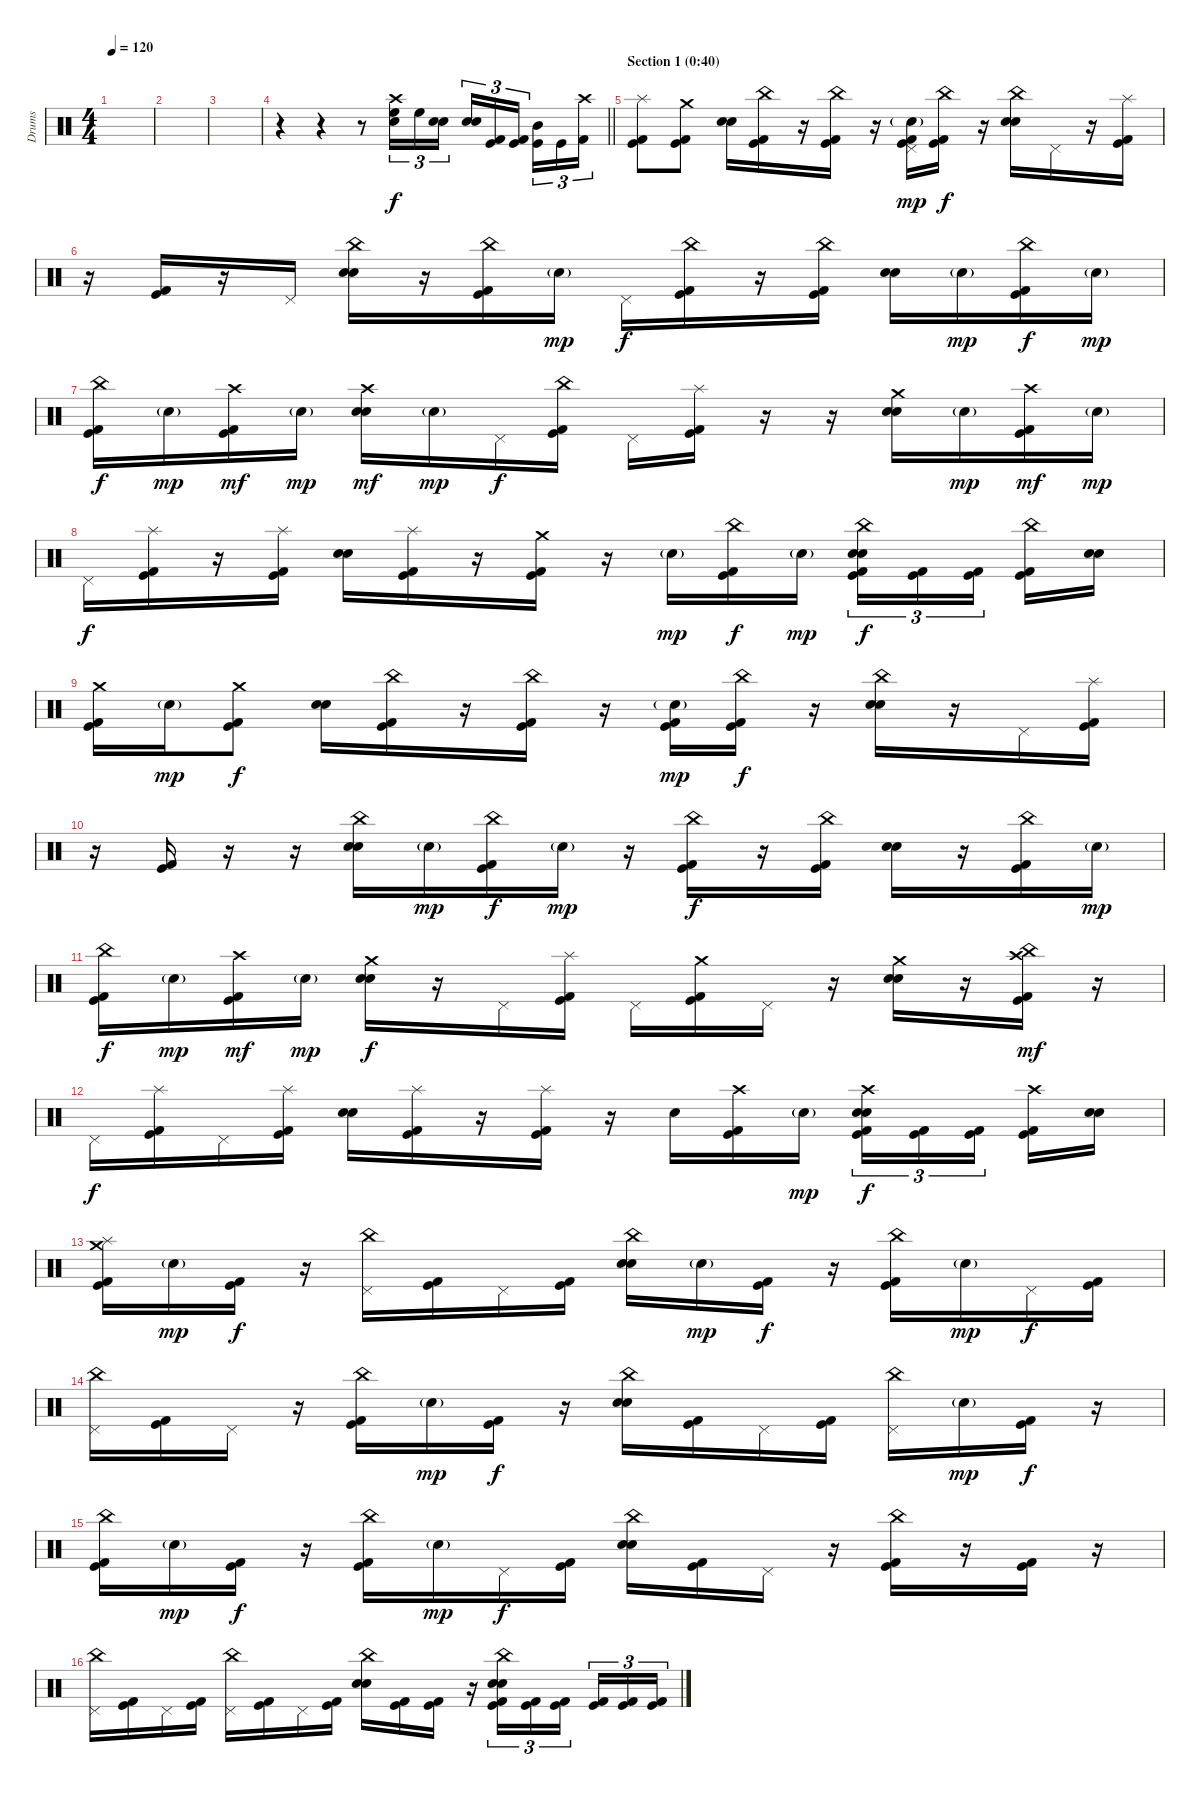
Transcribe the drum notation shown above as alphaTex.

\track ("Drums" "Drums") {instrument percussion}
\staff {score}
\articulation defaults
\ts (4 4)
\tempo 120
\clef neutral
\ks c
|
|
|
\barLineRight lightlight
r.4 r.4 r.8 ("Crash high (hit)" "High Floor Tom (hit)" "Electric Snare (hit)").16{tu (3 2)} "High Floor Tom (hit)".16{tu (3 2)} ("Electric Snare (hit)" "Electric Snare (hit)").16{tu (3 2)} ("Electric Snare (hit)" "Electric Snare (hit)").16{tu (3 2)} ("Kick (hit) 2" "Kick (hit)").16{tu (3 2)} ("Kick (hit) 2" "Kick (hit)").16{tu (3 2) beam splitsecondary} ("Mid Tom (hit)" "Kick (hit)").16{tu (3 2)} "Kick (hit)".16{tu (3 2)} ("Crash high (hit)" "Kick (hit) 2").16{tu (3 2)} |
\section ("" "Section 1 (0:40)")
("Splash (hit)" "Kick (hit) 2" "Kick (hit)").8 ("Crash medium (hit)" "Kick (hit) 2" "Kick (hit)").8 ("Electric Snare (hit)" "Electric Snare (hit)").16 ("China (hit)" "Kick (hit) 2" "Kick (hit)").16 r.16 ("China (hit)" "Kick (hit) 2" "Kick (hit)").16 r.16 ("Pedal Hi-Hat (hit)" "Snare (hit) 2"{g} "Kick (hit) 2" "Kick (hit)").16{dy mp} ("China (hit)" "Kick (hit) 2" "Kick (hit)").16{dy f} r.16 ("China (hit)" "Electric Snare (hit)" "Electric Snare (hit)").16 "Pedal Hi-Hat (hit)".16 r.16 ("Splash (hit)" "Kick (hit) 2" "Kick (hit)").16 |
r.16 ("Kick (hit) 2" "Kick (hit)").16 r.16 "Pedal Hi-Hat (hit)".16 ("China (hit)" "Electric Snare (hit)" "Electric Snare (hit)").16 r.16 ("China (hit)" "Kick (hit) 2" "Kick (hit)").16 "Snare (hit) 2"{g}.16{dy mp} "Pedal Hi-Hat (hit)".16{dy f} ("China (hit)" "Kick (hit) 2" "Kick (hit)").16 r.16 ("China (hit)" "Kick (hit) 2" "Kick (hit)").16 ("Electric Snare (hit)" "Electric Snare (hit)").16 "Snare (hit) 2"{g}.16{dy mp} ("China (hit)" "Kick (hit) 2" "Kick (hit)").16{dy f} "Snare (hit) 2"{g}.16{dy mp} |
("China (hit)" "Kick (hit) 2" "Kick (hit)").16{dy f} "Snare (hit) 2"{g}.16{dy mp} ("Crash high (hit)" "Kick (hit) 2" "Kick (hit)").16{dy mf} "Snare (hit) 2"{g}.16{dy mp} ("Crash high (hit)" "Electric Snare (hit)" "Electric Snare (hit)").16{dy mf} "Snare (hit) 2"{g}.16{dy mp} "Pedal Hi-Hat (hit)".16{dy f} ("China (hit)" "Kick (hit) 2" "Kick (hit)").16 "Pedal Hi-Hat (hit)".16 ("Splash (hit)" "Kick (hit) 2" "Kick (hit)").16 r.16 r.16 ("Crash medium (hit)" "Electric Snare (hit)" "Electric Snare (hit)").16 "Snare (hit) 2"{g}.16{dy mp} ("Crash high (hit)" "Kick (hit) 2" "Kick (hit)").16{dy mf} "Snare (hit) 2"{g}.16{dy mp} |
"Pedal Hi-Hat (hit)".16{dy f} ("Splash (hit)" "Kick (hit) 2" "Kick (hit)").16 r.16 ("Splash (hit)" "Kick (hit) 2" "Kick (hit)").16 ("Electric Snare (hit)" "Electric Snare (hit)").16 ("Splash (hit)" "Kick (hit) 2" "Kick (hit)").16 r.16 ("Crash medium (hit)" "Kick (hit) 2" "Kick (hit)").16 r.16 "Snare (hit) 2"{g}.16{dy mp} ("China (hit)" "Kick (hit) 2" "Kick (hit)").16{dy f} "Snare (hit) 2"{g}.16{dy mp} ("China (hit)" "Electric Snare (hit)" "Electric Snare (hit)" "Kick (hit) 2" "Kick (hit)").16{tu (3 2) dy f} ("Kick (hit) 2" "Kick (hit)").16{tu (3 2)} ("Kick (hit) 2" "Kick (hit)").16{tu (3 2) beam splitsecondary} ("China (hit)" "Kick (hit) 2" "Kick (hit)").16 ("Electric Snare (hit)" "Electric Snare (hit)").16 |
("Crash medium (hit)" "Kick (hit) 2" "Kick (hit)").16 "Snare (hit) 2"{g}.16{dy mp} ("Crash medium (hit)" "Kick (hit) 2" "Kick (hit)").8{dy f} ("Electric Snare (hit)" "Electric Snare (hit)").16 ("China (hit)" "Kick (hit) 2" "Kick (hit)").16 r.16 ("China (hit)" "Kick (hit) 2" "Kick (hit)").16 r.16 ("Snare (hit) 2"{g} "Kick (hit) 2" "Kick (hit)").16{dy mp} ("China (hit)" "Kick (hit) 2" "Kick (hit)").16{dy f} r.16 ("China (hit)" "Electric Snare (hit)" "Electric Snare (hit)").16 r.16 "Pedal Hi-Hat (hit)".16 ("Splash (hit)" "Kick (hit) 2" "Kick (hit)").16 |
r.16 ("Kick (hit) 2" "Kick (hit)").16 r.16 r.16 ("China (hit)" "Electric Snare (hit)" "Electric Snare (hit)").16 "Snare (hit) 2"{g}.16{dy mp} ("China (hit)" "Kick (hit) 2" "Kick (hit)").16{dy f} "Snare (hit) 2"{g}.16{dy mp} r.16 ("China (hit)" "Kick (hit) 2" "Kick (hit)").16{dy f} r.16 ("China (hit)" "Kick (hit) 2" "Kick (hit)").16 ("Electric Snare (hit)" "Electric Snare (hit)").16 r.16 ("China (hit)" "Kick (hit) 2" "Kick (hit)").16 "Snare (hit) 2"{g}.16{dy mp} |
("China (hit)" "Kick (hit) 2" "Kick (hit)").16{dy f} "Snare (hit) 2"{g}.16{dy mp} ("Crash high (hit)" "Kick (hit) 2" "Kick (hit)").16{dy mf} "Snare (hit) 2"{g}.16{dy mp} ("Crash medium (hit)" "Electric Snare (hit)" "Electric Snare (hit)").16{dy f} r.16 "Pedal Hi-Hat (hit)".16 ("Splash (hit)" "Kick (hit) 2" "Kick (hit)").16 "Pedal Hi-Hat (hit)".16 ("Crash medium (hit)" "Kick (hit) 2" "Kick (hit)").16 "Pedal Hi-Hat (hit)".16 r.16 ("Crash medium (hit)" "Electric Snare (hit)" "Electric Snare (hit)").16 r.16 ("China (hit)" "Crash high (hit)" "Kick (hit) 2" "Kick (hit)").16{dy mf} r.16 |
"Pedal Hi-Hat (hit)".16{dy f} ("Splash (hit)" "Kick (hit) 2" "Kick (hit)").16 "Pedal Hi-Hat (hit)".16 ("Splash (hit)" "Kick (hit) 2" "Kick (hit)").16 ("Electric Snare (hit)" "Electric Snare (hit)").16 ("Splash (hit)" "Kick (hit) 2" "Kick (hit)").16 r.16 ("Splash (hit)" "Kick (hit) 2" "Kick (hit)").16 r.16 "Electric Snare (hit)".16 ("Crash high (hit)" "Kick (hit) 2" "Kick (hit)").16 "Snare (hit) 2"{g}.16{dy mp} ("Crash high (hit)" "Electric Snare (hit)" "Electric Snare (hit)" "Kick (hit) 2" "Kick (hit)").16{tu (3 2) dy f} ("Kick (hit) 2" "Kick (hit)").16{tu (3 2)} ("Kick (hit) 2" "Kick (hit)").16{tu (3 2) beam splitsecondary} ("Crash high (hit)" "Kick (hit) 2" "Kick (hit)").16 ("Electric Snare (hit)" "Electric Snare (hit)").16 |
("Crash medium (hit)" "Splash (hit)" "Kick (hit) 2" "Kick (hit)").16 "Snare (hit) 2"{g}.16{dy mp} ("Kick (hit) 2" "Kick (hit)").16{dy f} r.16 ("China (hit)" "Pedal Hi-Hat (hit)").16 ("Kick (hit) 2" "Kick (hit)").16 "Pedal Hi-Hat (hit)".16 ("Kick (hit) 2" "Kick (hit)").16 ("China (hit)" "Electric Snare (hit)" "Electric Snare (hit)").16 "Snare (hit) 2"{g}.16{dy mp} ("Kick (hit) 2" "Kick (hit)").16{dy f} r.16 ("China (hit)" "Kick (hit) 2" "Kick (hit)").16 "Snare (hit) 2"{g}.16{dy mp} "Pedal Hi-Hat (hit)".16{dy f} ("Kick (hit) 2" "Kick (hit)").16 |
("China (hit)" "Pedal Hi-Hat (hit)").16 ("Kick (hit) 2" "Kick (hit)").16 "Pedal Hi-Hat (hit)".16 r.16 ("China (hit)" "Kick (hit) 2" "Kick (hit)").16 "Snare (hit) 2"{g}.16{dy mp} ("Kick (hit) 2" "Kick (hit)").16{dy f} r.16 ("China (hit)" "Electric Snare (hit)" "Electric Snare (hit)").16 ("Kick (hit) 2" "Kick (hit)").16 "Pedal Hi-Hat (hit)".16 ("Kick (hit) 2" "Kick (hit)").16 ("China (hit)" "Pedal Hi-Hat (hit)").16 "Snare (hit) 2"{g}.16{dy mp} ("Kick (hit) 2" "Kick (hit)").16{dy f} r.16 |
("China (hit)" "Kick (hit) 2" "Kick (hit)").16 "Snare (hit) 2"{g}.16{dy mp} ("Kick (hit) 2" "Kick (hit)").16{dy f} r.16 ("China (hit)" "Kick (hit) 2" "Kick (hit)").16 "Snare (hit) 2"{g}.16{dy mp} "Pedal Hi-Hat (hit)".16{dy f} ("Kick (hit) 2" "Kick (hit)").16 ("China (hit)" "Electric Snare (hit)" "Electric Snare (hit)").16 ("Kick (hit) 2" "Kick (hit)").16 "Pedal Hi-Hat (hit)".16 r.16 ("China (hit)" "Kick (hit) 2" "Kick (hit)").16 r.16 ("Kick (hit) 2" "Kick (hit)").16 r.16 |
("China (hit)" "Pedal Hi-Hat (hit)").16 ("Kick (hit) 2" "Kick (hit)").16 "Pedal Hi-Hat (hit)".16 ("Kick (hit) 2" "Kick (hit)").16 ("China (hit)" "Pedal Hi-Hat (hit)").16 ("Kick (hit) 2" "Kick (hit)").16 "Pedal Hi-Hat (hit)".16 ("Kick (hit) 2" "Kick (hit)").16 ("China (hit)" "Electric Snare (hit)" "Electric Snare (hit)").16 ("Kick (hit) 2" "Kick (hit)").16 ("Kick (hit) 2" "Kick (hit)").16 r.16 ("China (hit)" "Electric Snare (hit)" "Electric Snare (hit)" "Kick (hit) 2" "Kick (hit)").16{tu (3 2)} ("Kick (hit) 2" "Kick (hit)").16{tu (3 2)} ("Kick (hit) 2" "Kick (hit)").16{tu (3 2) beam splitsecondary} ("Kick (hit) 2" "Kick (hit)").16{tu (3 2)} ("Kick (hit) 2" "Kick (hit)").16{tu (3 2)} ("Kick (hit) 2" "Kick (hit)").16{tu (3 2)}
